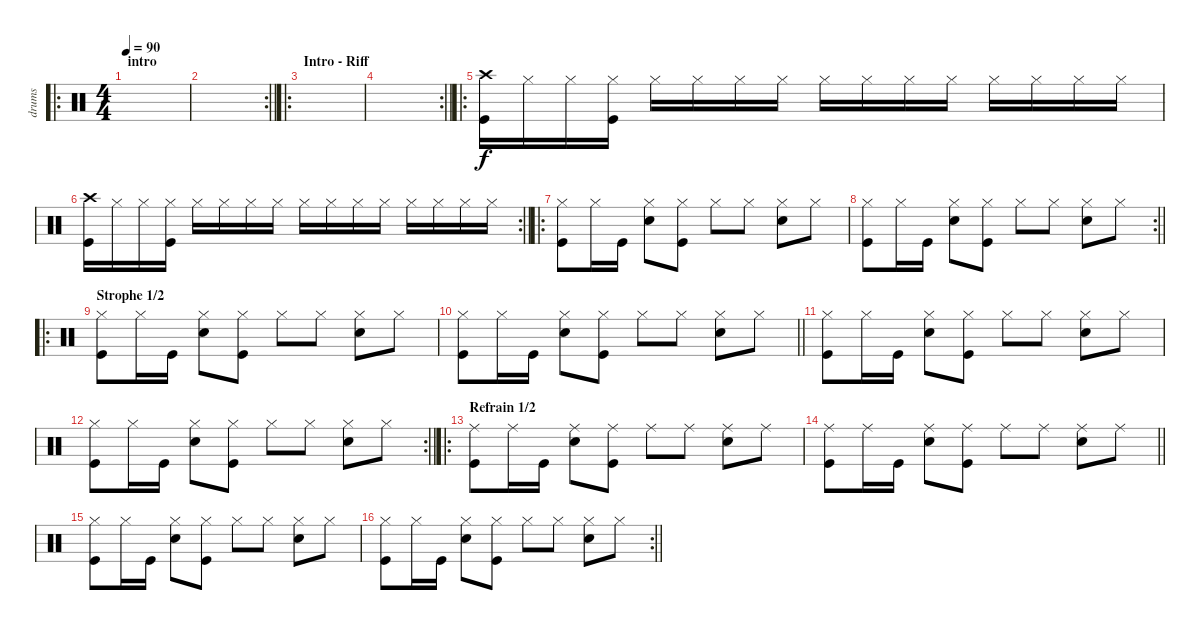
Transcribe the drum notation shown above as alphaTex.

\track ("drums" "drums") {instrument percussion}
\staff {score}
\articulation defaults
\ro
\ts (4 4)
\section ("" "intro")
\tempo 90
\clef neutral
\ks c
|
\rc 2
\barLineRight lightlight
|
\ro
\section ("" "Intro - Riff")
|
\rc 2
\barLineRight lightlight
|
\ro
("Kick (hit)" "Crash high (hit)").16 "Hi-Hat (closed)".16 "Hi-Hat (closed)".16 ("Hi-Hat (closed)" "Kick (hit)").16 "Hi-Hat (closed)".16 "Hi-Hat (closed)".16 "Hi-Hat (closed)".16 "Hi-Hat (closed)".16 "Hi-Hat (closed)".16 "Hi-Hat (closed)".16 "Hi-Hat (closed)".16 "Hi-Hat (closed)".16 "Hi-Hat (closed)".16 "Hi-Hat (closed)".16 "Hi-Hat (closed)".16 "Hi-Hat (closed)".16 |
\rc 2
\barLineRight lightlight
("Kick (hit)" "Crash high (hit)").16 "Hi-Hat (closed)".16 "Hi-Hat (closed)".16 ("Hi-Hat (closed)" "Kick (hit)").16 "Hi-Hat (closed)".16 "Hi-Hat (closed)".16 "Hi-Hat (closed)".16 "Hi-Hat (closed)".16 "Hi-Hat (closed)".16 "Hi-Hat (closed)".16 "Hi-Hat (closed)".16 "Hi-Hat (closed)".16 "Hi-Hat (closed)".16 "Hi-Hat (closed)".16 "Hi-Hat (closed)".16 "Hi-Hat (closed)".16 |
\ro
("Hi-Hat (closed)" "Kick (hit)").8 "Hi-Hat (closed)".16 "Kick (hit)".16 ("Hi-Hat (closed)" "Snare (hit) 2").8 ("Hi-Hat (closed)" "Kick (hit)").8 "Hi-Hat (closed)".8 "Hi-Hat (closed)".8 ("Hi-Hat (closed)" "Snare (hit) 2").8 "Hi-Hat (closed)".8 |
\rc 2
\barLineRight lightlight
("Hi-Hat (closed)" "Kick (hit)").8 "Hi-Hat (closed)".16 "Kick (hit)".16 ("Hi-Hat (closed)" "Snare (hit) 2").8 ("Hi-Hat (closed)" "Kick (hit)").8 "Hi-Hat (closed)".8 "Hi-Hat (closed)".8 ("Hi-Hat (closed)" "Snare (hit) 2").8 "Hi-Hat (closed)".8 |
\ro
\section ("" "Strophe 1/2")
("Hi-Hat (closed)" "Kick (hit)").8 "Hi-Hat (closed)".16 "Kick (hit)".16 ("Hi-Hat (closed)" "Snare (hit) 2").8 ("Hi-Hat (closed)" "Kick (hit)").8 "Hi-Hat (closed)".8 "Hi-Hat (closed)".8 ("Hi-Hat (closed)" "Snare (hit) 2").8 "Hi-Hat (closed)".8 |
\barLineRight lightlight
("Hi-Hat (closed)" "Kick (hit)").8 "Hi-Hat (closed)".16 "Kick (hit)".16 ("Hi-Hat (closed)" "Snare (hit) 2").8 ("Hi-Hat (closed)" "Kick (hit)").8 "Hi-Hat (closed)".8 "Hi-Hat (closed)".8 ("Hi-Hat (closed)" "Snare (hit) 2").8 "Hi-Hat (closed)".8 |
("Hi-Hat (closed)" "Kick (hit)").8 "Hi-Hat (closed)".16 "Kick (hit)".16 ("Hi-Hat (closed)" "Snare (hit) 2").8 ("Hi-Hat (closed)" "Kick (hit)").8 "Hi-Hat (closed)".8 "Hi-Hat (closed)".8 ("Hi-Hat (closed)" "Snare (hit) 2").8 "Hi-Hat (closed)".8 |
\rc 2
\barLineRight lightlight
("Hi-Hat (closed)" "Kick (hit)").8 "Hi-Hat (closed)".16 "Kick (hit)".16 ("Hi-Hat (closed)" "Snare (hit) 2").8 ("Hi-Hat (closed)" "Kick (hit)").8 "Hi-Hat (closed)".8 "Hi-Hat (closed)".8 ("Hi-Hat (closed)" "Snare (hit) 2").8 "Hi-Hat (closed)".8 |
\ro
\section ("" "Refrain 1/2")
("Ride (middle)" "Kick (hit)").8 "Ride (middle)".16 "Kick (hit)".16 ("Ride (middle)" "Snare (hit) 2").8 ("Ride (middle)" "Kick (hit)").8 "Ride (middle)".8 "Ride (middle)".8 ("Ride (middle)" "Snare (hit) 2").8 "Ride (middle)".8 |
\barLineRight lightlight
("Ride (middle)" "Kick (hit)").8 "Ride (middle)".16 "Kick (hit)".16 ("Ride (middle)" "Snare (hit) 2").8 ("Ride (middle)" "Kick (hit)").8 "Ride (middle)".8 "Ride (middle)".8 ("Ride (middle)" "Snare (hit) 2").8 "Ride (middle)".8 |
("Hi-Hat (closed)" "Kick (hit)").8 "Hi-Hat (closed)".16 "Kick (hit)".16 ("Hi-Hat (closed)" "Snare (hit) 2").8 ("Hi-Hat (closed)" "Kick (hit)").8 "Hi-Hat (closed)".8 "Hi-Hat (closed)".8 ("Hi-Hat (closed)" "Snare (hit) 2").8 "Hi-Hat (closed)".8 |
\rc 2
\barLineRight lightlight
("Hi-Hat (closed)" "Kick (hit)").8 "Hi-Hat (closed)".16 "Kick (hit)".16 ("Hi-Hat (closed)" "Snare (hit) 2").8 ("Hi-Hat (closed)" "Kick (hit)").8 "Hi-Hat (closed)".8 "Hi-Hat (closed)".8 ("Hi-Hat (closed)" "Snare (hit) 2").8 "Hi-Hat (closed)".8
